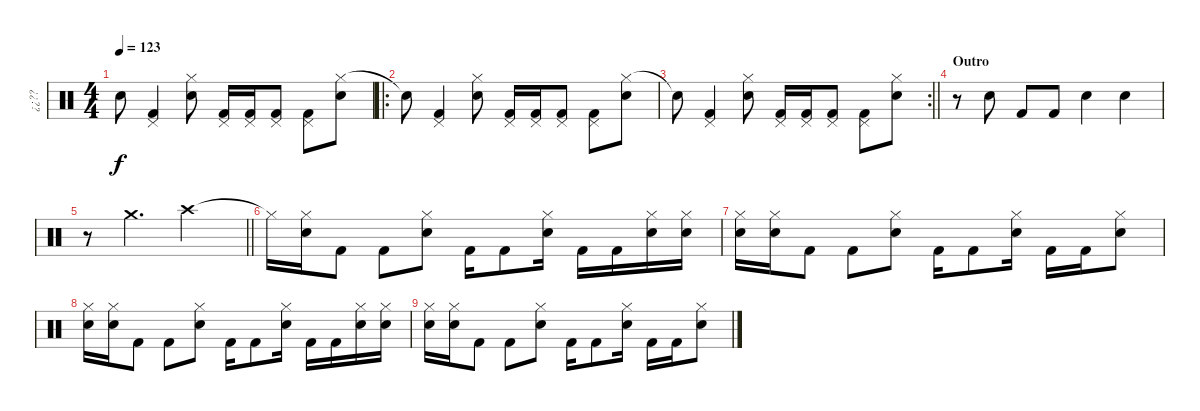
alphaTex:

\track ("¿¿??" "¿¿??") {instrument percussion}
\staff {score}
\articulation defaults
\ts (4 4)
\tempo 123
\clef neutral
\ks c "Snare (hit)"{t}.8{dy f}
("Pedal Hi-Hat (hit)" "Kick (hit) 2").4 ("Hi-Hat (closed)" "Snare (hit) 2").8 ("Pedal Hi-Hat (hit)" "Kick (hit) 2").16 ("Pedal Hi-Hat (hit)" "Kick (hit) 2").16 ("Pedal Hi-Hat (hit)" "Kick (hit) 2").8 ("Pedal Hi-Hat (hit)" "Kick (hit) 2").8 ("Hi-Hat (closed)" "Snare (hit) 2").8 |
\ro "Snare (hit)"{t}.8
("Pedal Hi-Hat (hit)" "Kick (hit) 2").4 ("Hi-Hat (closed)" "Snare (hit) 2").8 ("Pedal Hi-Hat (hit)" "Kick (hit) 2").16 ("Pedal Hi-Hat (hit)" "Kick (hit) 2").16 ("Pedal Hi-Hat (hit)" "Kick (hit) 2").8 ("Pedal Hi-Hat (hit)" "Kick (hit) 2").8 ("Hi-Hat (closed)" "Snare (hit) 2").8 |
\rc 2
\barLineRight lightlight "Snare (hit)"{t}.8
("Pedal Hi-Hat (hit)" "Kick (hit) 2").4 ("Hi-Hat (closed)" "Snare (hit) 2").8 ("Pedal Hi-Hat (hit)" "Kick (hit) 2").16 ("Pedal Hi-Hat (hit)" "Kick (hit) 2").16 ("Pedal Hi-Hat (hit)" "Kick (hit) 2").8 ("Pedal Hi-Hat (hit)" "Kick (hit) 2").8 ("Hi-Hat (closed)" "Snare (hit) 2").8 |
\section ("" "Outro")
r.8 "Snare (hit) 2".8 "Kick (hit) 2".8 "Kick (hit) 2".8 "Snare (hit) 2".4 "Snare (hit) 2".4 |
\barLineRight lightlight
r.8 "Crash medium (hit)".4{d} "Crash high (hit)".2 |
"Hi-Hat (closed)"{t}.16 ("Hi-Hat (closed)" "Snare (hit) 2").16 "Kick (hit) 2".8 "Kick (hit) 2".8 ("Hi-Hat (closed)" "Snare (hit) 2").8 "Kick (hit) 2".16 "Kick (hit) 2".8 ("Hi-Hat (closed)" "Snare (hit) 2").16 "Kick (hit) 2".16 "Kick (hit) 2".16 ("Hi-Hat (closed)" "Snare (hit) 2").16 ("Hi-Hat (closed)" "Snare (hit) 2").16 |
("Hi-Hat (closed)" "Snare (hit) 2").16 ("Hi-Hat (closed)" "Snare (hit) 2").16 "Kick (hit) 2".8 "Kick (hit) 2".8 ("Hi-Hat (closed)" "Snare (hit) 2").8 "Kick (hit) 2".16 "Kick (hit) 2".8 ("Hi-Hat (closed)" "Snare (hit) 2").16 "Kick (hit) 2".16 "Kick (hit) 2".16 ("Hi-Hat (closed)" "Snare (hit) 2").8 |
("Hi-Hat (closed)" "Snare (hit) 2").16 ("Hi-Hat (closed)" "Snare (hit) 2").16 "Kick (hit) 2".8 "Kick (hit) 2".8 ("Hi-Hat (closed)" "Snare (hit) 2").8 "Kick (hit) 2".16 "Kick (hit) 2".8 ("Hi-Hat (closed)" "Snare (hit) 2").16 "Kick (hit) 2".16 "Kick (hit) 2".16 ("Hi-Hat (closed)" "Snare (hit) 2").16 ("Hi-Hat (closed)" "Snare (hit) 2").16 |
("Hi-Hat (closed)" "Snare (hit) 2").16 ("Hi-Hat (closed)" "Snare (hit) 2").16 "Kick (hit) 2".8 "Kick (hit) 2".8 ("Hi-Hat (closed)" "Snare (hit) 2").8 "Kick (hit) 2".16 "Kick (hit) 2".8 ("Hi-Hat (closed)" "Snare (hit) 2").16 "Kick (hit) 2".16 "Kick (hit) 2".16 ("Hi-Hat (closed)" "Snare (hit) 2").8
